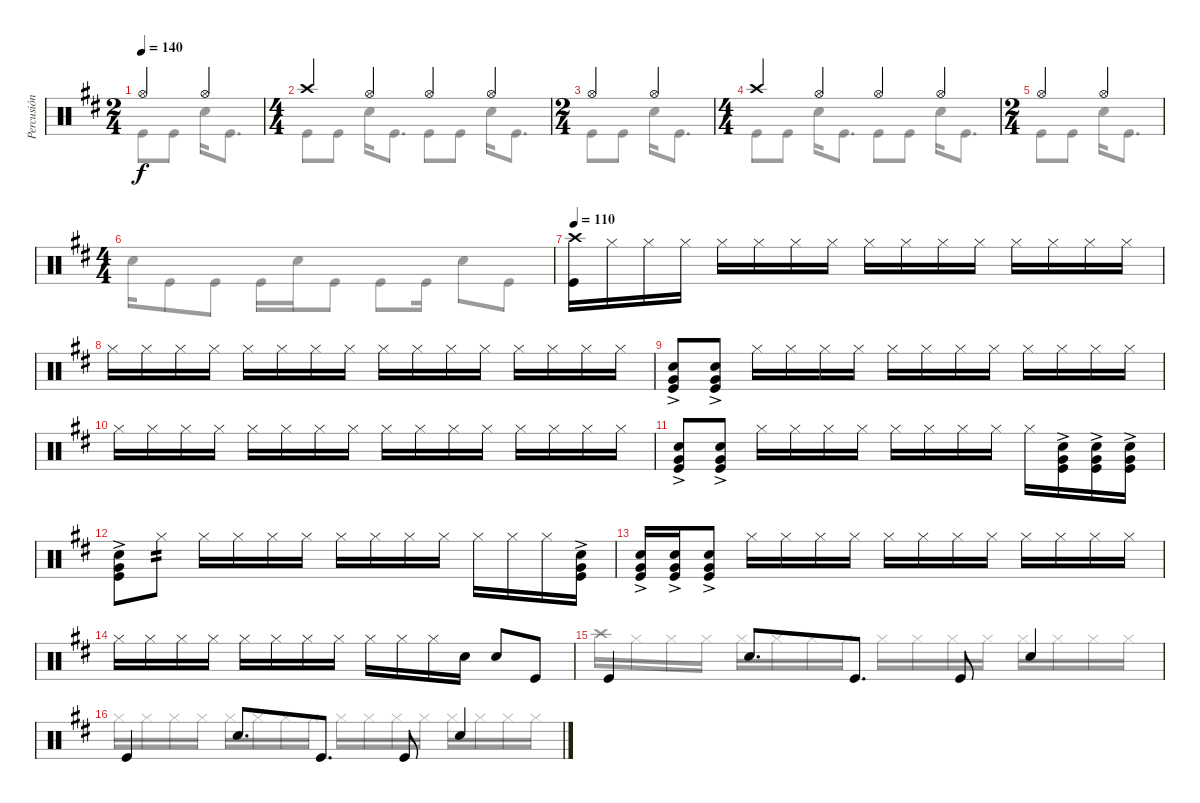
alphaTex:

\track ("Percusión" "Percusión") {instrument percussion}
\staff {score}
\articulation defaults
\voice
\ts (2 4)
\tempo 140
\clef neutral
\ks bminor "Hi-Hat (open)".4{dy f} "Hi-Hat (open)".4
|
\ts (4 4)
"Crash high (hit)".4 "Hi-Hat (open)".4 "Hi-Hat (open)".4 "Hi-Hat (open)".4 |
\ts (2 4)
"Hi-Hat (open)".4 "Hi-Hat (open)".4 |
\ts (4 4)
"Crash high (hit)".4 "Hi-Hat (open)".4 "Hi-Hat (open)".4 "Hi-Hat (open)".4 |
\ts (2 4)
"Hi-Hat (open)".4 "Hi-Hat (open)".4 |
\ts (4 4)
|
\tempo 110
("Crash high (hit)" "Kick (hit)").16 "Hi-Hat (closed)".16 "Hi-Hat (closed)".16 "Hi-Hat (closed)".16 "Hi-Hat (closed)".16 "Hi-Hat (closed)".16 "Hi-Hat (closed)".16 "Hi-Hat (closed)".16 "Hi-Hat (closed)".16 "Hi-Hat (closed)".16 "Hi-Hat (closed)".16 "Hi-Hat (closed)".16 "Hi-Hat (closed)".16 "Hi-Hat (closed)".16 "Hi-Hat (closed)".16 "Hi-Hat (closed)".16 |
"Hi-Hat (closed)".16 "Hi-Hat (closed)".16 "Hi-Hat (closed)".16 "Hi-Hat (closed)".16 "Hi-Hat (closed)".16 "Hi-Hat (closed)".16 "Hi-Hat (closed)".16 "Hi-Hat (closed)".16 "Hi-Hat (closed)".16 "Hi-Hat (closed)".16 "Hi-Hat (closed)".16 "Hi-Hat (closed)".16 "Hi-Hat (closed)".16 "Hi-Hat (closed)".16 "Hi-Hat (closed)".16 "Hi-Hat (closed)".16 |
("Snare (hit) 2"{ac} "Very Low Tom (hit)"{ac} "Kick (hit)"{ac}).8 ("Snare (hit) 2"{ac} "Very Low Tom (hit)"{ac} "Kick (hit)"{ac}).8 "Hi-Hat (closed)".16 "Hi-Hat (closed)".16 "Hi-Hat (closed)".16 "Hi-Hat (closed)".16 "Hi-Hat (closed)".16 "Hi-Hat (closed)".16 "Hi-Hat (closed)".16 "Hi-Hat (closed)".16 "Hi-Hat (closed)".16 "Hi-Hat (closed)".16 "Hi-Hat (closed)".16 "Hi-Hat (closed)".16 |
"Hi-Hat (closed)".16 "Hi-Hat (closed)".16 "Hi-Hat (closed)".16 "Hi-Hat (closed)".16 "Hi-Hat (closed)".16 "Hi-Hat (closed)".16 "Hi-Hat (closed)".16 "Hi-Hat (closed)".16 "Hi-Hat (closed)".16 "Hi-Hat (closed)".16 "Hi-Hat (closed)".16 "Hi-Hat (closed)".16 "Hi-Hat (closed)".16 "Hi-Hat (closed)".16 "Hi-Hat (closed)".16 "Hi-Hat (closed)".16 |
("Snare (hit) 2"{ac} "Very Low Tom (hit)"{ac} "Kick (hit)"{ac}).8 ("Snare (hit) 2"{ac} "Very Low Tom (hit)"{ac} "Kick (hit)"{ac}).8 "Hi-Hat (closed)".16 "Hi-Hat (closed)".16 "Hi-Hat (closed)".16 "Hi-Hat (closed)".16 "Hi-Hat (closed)".16 "Hi-Hat (closed)".16 "Hi-Hat (closed)".16 "Hi-Hat (closed)".16 "Hi-Hat (closed)".16 ("Snare (hit) 2"{ac} "Very Low Tom (hit)"{ac} "Kick (hit)"{ac}).16 ("Snare (hit) 2"{ac} "Very Low Tom (hit)"{ac} "Kick (hit)"{ac}).16 ("Snare (hit) 2"{ac} "Very Low Tom (hit)"{ac} "Kick (hit)"{ac}).16 |
("Snare (hit) 2"{ac} "Very Low Tom (hit)"{ac} "Kick (hit)"{ac}).8 "Hi-Hat (closed)".8{tp 2} "Hi-Hat (closed)".16 "Hi-Hat (closed)".16 "Hi-Hat (closed)".16 "Hi-Hat (closed)".16 "Hi-Hat (closed)".16 "Hi-Hat (closed)".16 "Hi-Hat (closed)".16 "Hi-Hat (closed)".16 "Hi-Hat (closed)".16 "Hi-Hat (closed)".16 "Hi-Hat (closed)".16 ("Snare (hit) 2"{ac} "Very Low Tom (hit)"{ac} "Kick (hit)"{ac}).16 |
("Snare (hit) 2"{ac} "Very Low Tom (hit)"{ac} "Kick (hit)"{ac}).16 ("Snare (hit) 2"{ac} "Very Low Tom (hit)"{ac} "Kick (hit)"{ac}).16 ("Snare (hit) 2"{ac} "Very Low Tom (hit)"{ac} "Kick (hit)"{ac}).8 "Hi-Hat (closed)".16 "Hi-Hat (closed)".16 "Hi-Hat (closed)".16 "Hi-Hat (closed)".16 "Hi-Hat (closed)".16 "Hi-Hat (closed)".16 "Hi-Hat (closed)".16 "Hi-Hat (closed)".16 "Hi-Hat (closed)".16 "Hi-Hat (closed)".16 "Hi-Hat (closed)".16 "Hi-Hat (closed)".16 |
"Hi-Hat (closed)".16 "Hi-Hat (closed)".16 "Hi-Hat (closed)".16 "Hi-Hat (closed)".16 "Hi-Hat (closed)".16 "Hi-Hat (closed)".16 "Hi-Hat (closed)".16 "Hi-Hat (closed)".16 "Hi-Hat (closed)".16 "Hi-Hat (closed)".16 "Hi-Hat (closed)".16 "Snare (hit) 2".16 "Snare (hit) 2".8 "Kick (hit)".8 |
"Kick (hit)".4 "Snare (hit) 2".8{d} "Kick (hit)".8{d} "Kick (hit)".8 "Snare (hit) 2".4 |
"Kick (hit)".4 "Snare (hit) 2".8{d} "Kick (hit)".8{d} "Kick (hit)".8 "Snare (hit) 2".4
\voice
\clef neutral
\ottava regular
\simile none
\ks bminor "Kick (hit)".8{dy f} "Kick (hit)".8 "Snare (hit) 2".16 "Kick (hit)".8{d}
|
"Kick (hit)".8 "Kick (hit)".8 "Snare (hit) 2".16 "Kick (hit)".8{d} "Kick (hit)".8 "Kick (hit)".8 "Snare (hit) 2".16 "Kick (hit)".8{d} |
"Kick (hit)".8 "Kick (hit)".8 "Snare (hit) 2".16 "Kick (hit)".8{d} |
"Kick (hit)".8 "Kick (hit)".8 "Snare (hit) 2".16 "Kick (hit)".8{d} "Kick (hit)".8 "Kick (hit)".8 "Snare (hit) 2".16 "Kick (hit)".8{d} |
"Kick (hit)".8 "Kick (hit)".8 "Snare (hit) 2".16 "Kick (hit)".8{d} |
"Snare (hit) 2".16 "Kick (hit)".8 "Kick (hit)".8 "Kick (hit)".16 "Snare (hit) 2".16 "Kick (hit)".8 "Kick (hit)".8 "Kick (hit)".16 "Snare (hit) 2".8 "Kick (hit)".8 |
|
|
|
|
|
|
|
|
"Crash high (hit)".16 "Hi-Hat (closed)".16 "Hi-Hat (closed)".16 "Hi-Hat (closed)".16 "Hi-Hat (closed)".16 "Hi-Hat (closed)".16 "Hi-Hat (closed)".16 "Hi-Hat (closed)".16 "Hi-Hat (closed)".16 "Hi-Hat (closed)".16 "Hi-Hat (closed)".16 "Hi-Hat (closed)".16 "Hi-Hat (closed)".16 "Hi-Hat (closed)".16 "Hi-Hat (closed)".16 "Hi-Hat (closed)".16 |
"Hi-Hat (closed)".16 "Hi-Hat (closed)".16 "Hi-Hat (closed)".16 "Hi-Hat (closed)".16 "Hi-Hat (closed)".16 "Hi-Hat (closed)".16 "Hi-Hat (closed)".16 "Hi-Hat (closed)".16 "Hi-Hat (closed)".16 "Hi-Hat (closed)".16 "Hi-Hat (closed)".16 "Hi-Hat (closed)".16 "Hi-Hat (closed)".16 "Hi-Hat (closed)".16 "Hi-Hat (closed)".16 "Hi-Hat (closed)".16
